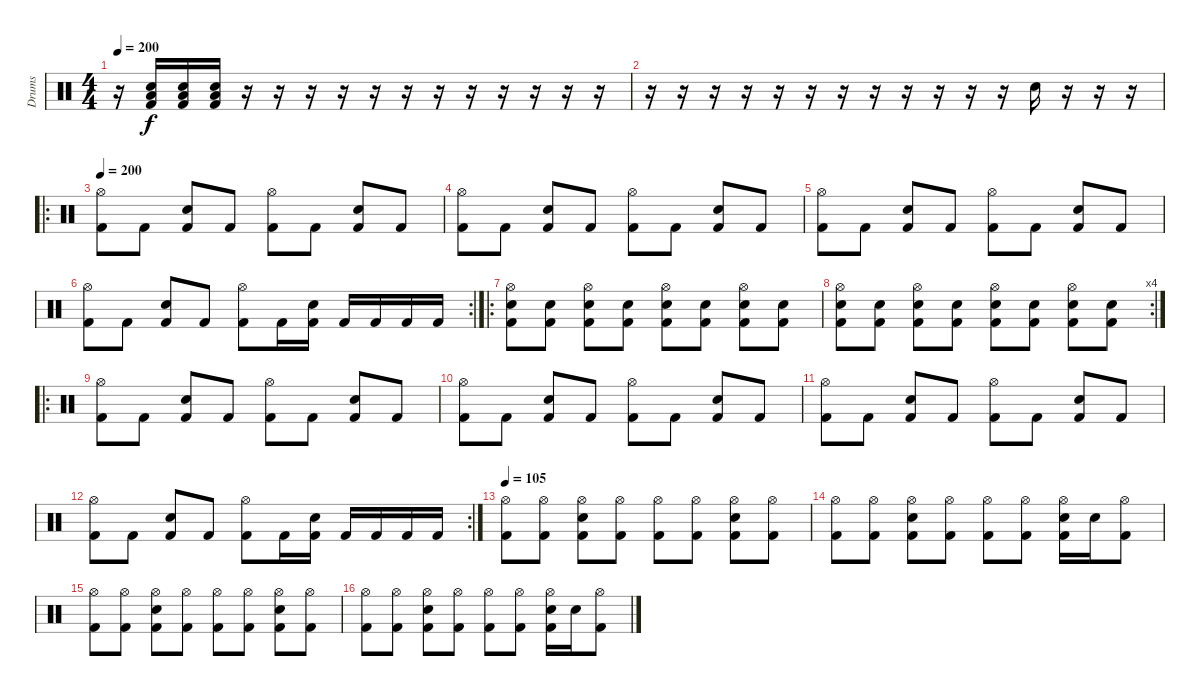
\track ("Drums" "Drums") {instrument percussion}
\staff {score}
\articulation defaults
\ts (4 4)
\tempo 200
\clef neutral
\ks c
r.16{dy f} ("Low Tom (hit)" "Electric Snare (hit)" "Kick (hit) 2").16 ("Low Tom (hit)" "Electric Snare (hit)" "Kick (hit) 2").16 ("Low Tom (hit)" "Electric Snare (hit)" "Kick (hit) 2").16 r.16 r.16 r.16 r.16 r.16 r.16 r.16 r.16 r.16 r.16 r.16 r.16 |
r.16 r.16 r.16 r.16 r.16 r.16 r.16 r.16 r.16 r.16 r.16 r.16 "Electric Snare (hit)".16 r.16 r.16 r.16 |
\ro
\tempo 200
("Hi-Hat (open)" "Kick (hit) 2").8 "Kick (hit) 2".8 ("Electric Snare (hit)" "Kick (hit) 2").8 "Kick (hit) 2".8 ("Hi-Hat (open)" "Kick (hit) 2").8 "Kick (hit) 2".8 ("Electric Snare (hit)" "Kick (hit) 2").8 "Kick (hit) 2".8 |
("Hi-Hat (open)" "Kick (hit) 2").8 "Kick (hit) 2".8 ("Electric Snare (hit)" "Kick (hit) 2").8 "Kick (hit) 2".8 ("Hi-Hat (open)" "Kick (hit) 2").8 "Kick (hit) 2".8 ("Electric Snare (hit)" "Kick (hit) 2").8 "Kick (hit) 2".8 |
("Hi-Hat (open)" "Kick (hit) 2").8 "Kick (hit) 2".8 ("Electric Snare (hit)" "Kick (hit) 2").8 "Kick (hit) 2".8 ("Hi-Hat (open)" "Kick (hit) 2").8 "Kick (hit) 2".8 ("Electric Snare (hit)" "Kick (hit) 2").8 "Kick (hit) 2".8 |
\rc 2
("Hi-Hat (open)" "Kick (hit) 2").8 "Kick (hit) 2".8 ("Electric Snare (hit)" "Kick (hit) 2").8 "Kick (hit) 2".8 ("Hi-Hat (open)" "Kick (hit) 2").8 "Kick (hit) 2".16 ("Electric Snare (hit)" "Kick (hit) 2").16 "Kick (hit) 2".16 "Kick (hit) 2".16 "Kick (hit) 2".16 "Kick (hit) 2".16 |
\ro
("Hi-Hat (open)" "Electric Snare (hit)" "Kick (hit) 2").8 ("Electric Snare (hit)" "Kick (hit) 2").8 ("Hi-Hat (open)" "Electric Snare (hit)" "Kick (hit) 2").8 ("Electric Snare (hit)" "Kick (hit) 2").8 ("Hi-Hat (open)" "Electric Snare (hit)" "Kick (hit) 2").8 ("Electric Snare (hit)" "Kick (hit) 2").8 ("Hi-Hat (open)" "Electric Snare (hit)" "Kick (hit) 2").8 ("Electric Snare (hit)" "Kick (hit) 2").8 |
\rc 4
("Hi-Hat (open)" "Electric Snare (hit)" "Kick (hit) 2").8 ("Electric Snare (hit)" "Kick (hit) 2").8 ("Hi-Hat (open)" "Electric Snare (hit)" "Kick (hit) 2").8 ("Electric Snare (hit)" "Kick (hit) 2").8 ("Hi-Hat (open)" "Electric Snare (hit)" "Kick (hit) 2").8 ("Electric Snare (hit)" "Kick (hit) 2").8 ("Hi-Hat (open)" "Electric Snare (hit)" "Kick (hit) 2").8 ("Electric Snare (hit)" "Kick (hit) 2").8 |
\ro
("Hi-Hat (open)" "Kick (hit) 2").8 "Kick (hit) 2".8 ("Electric Snare (hit)" "Kick (hit) 2").8 "Kick (hit) 2".8 ("Hi-Hat (open)" "Kick (hit) 2").8 "Kick (hit) 2".8 ("Electric Snare (hit)" "Kick (hit) 2").8 "Kick (hit) 2".8 |
("Hi-Hat (open)" "Kick (hit) 2").8 "Kick (hit) 2".8 ("Electric Snare (hit)" "Kick (hit) 2").8 "Kick (hit) 2".8 ("Hi-Hat (open)" "Kick (hit) 2").8 "Kick (hit) 2".8 ("Electric Snare (hit)" "Kick (hit) 2").8 "Kick (hit) 2".8 |
("Hi-Hat (open)" "Kick (hit) 2").8 "Kick (hit) 2".8 ("Electric Snare (hit)" "Kick (hit) 2").8 "Kick (hit) 2".8 ("Hi-Hat (open)" "Kick (hit) 2").8 "Kick (hit) 2".8 ("Electric Snare (hit)" "Kick (hit) 2").8 "Kick (hit) 2".8 |
\rc 2
("Hi-Hat (open)" "Kick (hit) 2").8 "Kick (hit) 2".8 ("Electric Snare (hit)" "Kick (hit) 2").8 "Kick (hit) 2".8 ("Hi-Hat (open)" "Kick (hit) 2").8 "Kick (hit) 2".16 ("Electric Snare (hit)" "Kick (hit) 2").16 "Kick (hit) 2".16 "Kick (hit) 2".16 "Kick (hit) 2".16 "Kick (hit) 2".16 |
\tempo 105
("Hi-Hat (open)" "Kick (hit) 2").8 ("Hi-Hat (open)" "Kick (hit) 2").8 ("Hi-Hat (open)" "Electric Snare (hit)" "Kick (hit) 2").8 ("Hi-Hat (open)" "Kick (hit) 2").8 ("Hi-Hat (open)" "Kick (hit) 2").8 ("Hi-Hat (open)" "Kick (hit) 2").8 ("Hi-Hat (open)" "Electric Snare (hit)" "Kick (hit) 2").8 ("Hi-Hat (open)" "Kick (hit) 2").8 |
("Hi-Hat (open)" "Kick (hit) 2").8 ("Hi-Hat (open)" "Kick (hit) 2").8 ("Hi-Hat (open)" "Electric Snare (hit)" "Kick (hit) 2").8 ("Hi-Hat (open)" "Kick (hit) 2").8 ("Hi-Hat (open)" "Kick (hit) 2").8 ("Hi-Hat (open)" "Kick (hit) 2").8 ("Hi-Hat (open)" "Electric Snare (hit)" "Kick (hit) 2").16 "Electric Snare (hit)".16 ("Hi-Hat (open)" "Kick (hit) 2").8 |
("Hi-Hat (open)" "Kick (hit) 2").8 ("Hi-Hat (open)" "Kick (hit) 2").8 ("Hi-Hat (open)" "Electric Snare (hit)" "Kick (hit) 2").8 ("Hi-Hat (open)" "Kick (hit) 2").8 ("Hi-Hat (open)" "Kick (hit) 2").8 ("Hi-Hat (open)" "Kick (hit) 2").8 ("Hi-Hat (open)" "Electric Snare (hit)" "Kick (hit) 2").8 ("Hi-Hat (open)" "Kick (hit) 2").8 |
("Hi-Hat (open)" "Kick (hit) 2").8 ("Hi-Hat (open)" "Kick (hit) 2").8 ("Hi-Hat (open)" "Electric Snare (hit)" "Kick (hit) 2").8 ("Hi-Hat (open)" "Kick (hit) 2").8 ("Hi-Hat (open)" "Kick (hit) 2").8 ("Hi-Hat (open)" "Kick (hit) 2").8 ("Hi-Hat (open)" "Electric Snare (hit)" "Kick (hit) 2").16 "Electric Snare (hit)".16 ("Hi-Hat (open)" "Kick (hit) 2").8
